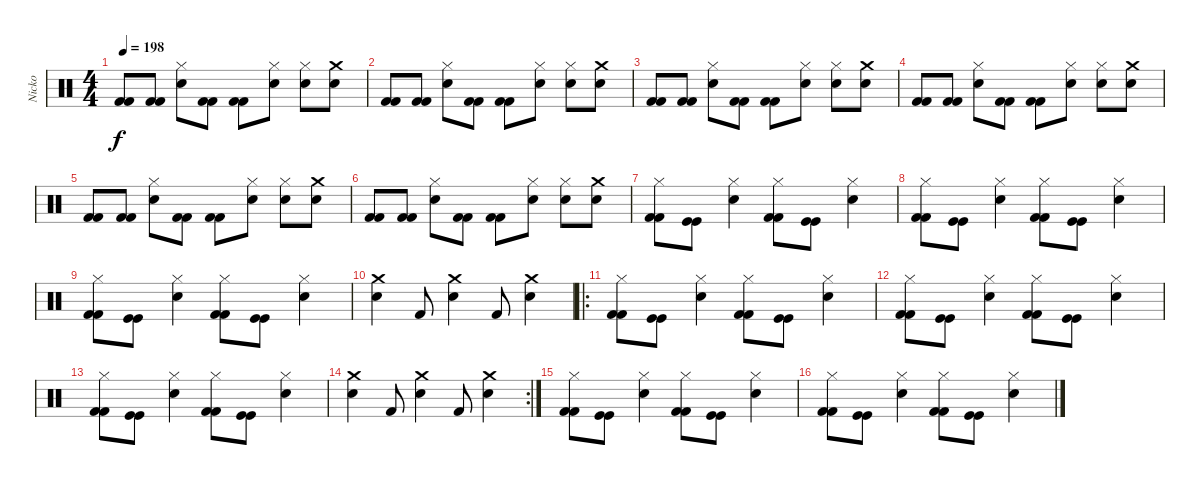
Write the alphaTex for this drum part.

\track ("Nicko" "Nicko") {instrument percussion}
\staff {score}
\articulation defaults
\ts (4 4)
\tempo 198
\clef neutral
\ks c
("Kick (hit) 2" "Kick (hit) 2").8{dy f} ("Kick (hit) 2" "Kick (hit) 2").8 ("Hi-Hat (closed)" "Electric Snare (hit)").8 ("Kick (hit) 2" "Kick (hit) 2").8 ("Kick (hit) 2" "Kick (hit) 2").8 ("Hi-Hat (closed)" "Electric Snare (hit)").8 ("Hi-Hat (closed)" "Electric Snare (hit)").8 ("Crash medium (hit)" "Electric Snare (hit)").8 |
("Kick (hit) 2" "Kick (hit) 2").8 ("Kick (hit) 2" "Kick (hit) 2").8 ("Hi-Hat (closed)" "Electric Snare (hit)").8 ("Kick (hit) 2" "Kick (hit) 2").8 ("Kick (hit) 2" "Kick (hit) 2").8 ("Hi-Hat (closed)" "Electric Snare (hit)").8 ("Hi-Hat (closed)" "Electric Snare (hit)").8 ("Crash medium (hit)" "Electric Snare (hit)").8 |
("Kick (hit) 2" "Kick (hit) 2").8 ("Kick (hit) 2" "Kick (hit) 2").8 ("Hi-Hat (closed)" "Electric Snare (hit)").8 ("Kick (hit) 2" "Kick (hit) 2").8 ("Kick (hit) 2" "Kick (hit) 2").8 ("Hi-Hat (closed)" "Electric Snare (hit)").8 ("Hi-Hat (closed)" "Electric Snare (hit)").8 ("Crash medium (hit)" "Electric Snare (hit)").8 |
("Kick (hit) 2" "Kick (hit) 2").8 ("Kick (hit) 2" "Kick (hit) 2").8 ("Hi-Hat (closed)" "Electric Snare (hit)").8 ("Kick (hit) 2" "Kick (hit) 2").8 ("Kick (hit) 2" "Kick (hit) 2").8 ("Hi-Hat (closed)" "Electric Snare (hit)").8 ("Hi-Hat (closed)" "Electric Snare (hit)").8 ("Crash medium (hit)" "Electric Snare (hit)").8 |
("Kick (hit) 2" "Kick (hit) 2").8 ("Kick (hit) 2" "Kick (hit) 2").8 ("Hi-Hat (closed)" "Electric Snare (hit)").8 ("Kick (hit) 2" "Kick (hit) 2").8 ("Kick (hit) 2" "Kick (hit) 2").8 ("Hi-Hat (closed)" "Electric Snare (hit)").8 ("Hi-Hat (closed)" "Electric Snare (hit)").8 ("Crash medium (hit)" "Electric Snare (hit)").8 |
("Kick (hit) 2" "Kick (hit) 2").8 ("Kick (hit) 2" "Kick (hit) 2").8 ("Hi-Hat (closed)" "Electric Snare (hit)").8 ("Kick (hit) 2" "Kick (hit) 2").8 ("Kick (hit) 2" "Kick (hit) 2").8 ("Hi-Hat (closed)" "Electric Snare (hit)").8 ("Hi-Hat (closed)" "Electric Snare (hit)").8 ("Crash medium (hit)" "Electric Snare (hit)").8 |
("Hi-Hat (closed)" "Kick (hit) 2" "Kick (hit) 2").8 ("Kick (hit)" "Kick (hit)").8 ("Hi-Hat (closed)" "Electric Snare (hit)").4 ("Hi-Hat (closed)" "Kick (hit) 2" "Kick (hit) 2").8 ("Kick (hit)" "Kick (hit)").8 ("Hi-Hat (closed)" "Electric Snare (hit)").4 |
("Hi-Hat (closed)" "Kick (hit) 2" "Kick (hit) 2").8 ("Kick (hit)" "Kick (hit)").8 ("Hi-Hat (closed)" "Electric Snare (hit)").4 ("Hi-Hat (closed)" "Kick (hit) 2" "Kick (hit) 2").8 ("Kick (hit)" "Kick (hit)").8 ("Hi-Hat (closed)" "Electric Snare (hit)").4 |
("Hi-Hat (closed)" "Kick (hit) 2" "Kick (hit) 2").8 ("Kick (hit)" "Kick (hit)").8 ("Hi-Hat (closed)" "Electric Snare (hit)").4 ("Hi-Hat (closed)" "Kick (hit) 2" "Kick (hit) 2").8 ("Kick (hit)" "Kick (hit)").8 ("Hi-Hat (closed)" "Electric Snare (hit)").4 |
("Crash medium (hit)" "Electric Snare (hit)").4 "Kick (hit) 2".8 ("Crash medium (hit)" "Electric Snare (hit)").4 "Kick (hit) 2".8 ("Crash medium (hit)" "Electric Snare (hit)").4 |
\ro
("Hi-Hat (closed)" "Kick (hit) 2" "Kick (hit) 2").8 ("Kick (hit)" "Kick (hit)").8 ("Hi-Hat (closed)" "Electric Snare (hit)").4 ("Hi-Hat (closed)" "Kick (hit) 2" "Kick (hit) 2").8 ("Kick (hit)" "Kick (hit)").8 ("Hi-Hat (closed)" "Electric Snare (hit)").4 |
("Hi-Hat (closed)" "Kick (hit) 2" "Kick (hit) 2").8 ("Kick (hit)" "Kick (hit)").8 ("Hi-Hat (closed)" "Electric Snare (hit)").4 ("Hi-Hat (closed)" "Kick (hit) 2" "Kick (hit) 2").8 ("Kick (hit)" "Kick (hit)").8 ("Hi-Hat (closed)" "Electric Snare (hit)").4 |
("Hi-Hat (closed)" "Kick (hit) 2" "Kick (hit) 2").8 ("Kick (hit)" "Kick (hit)").8 ("Hi-Hat (closed)" "Electric Snare (hit)").4 ("Hi-Hat (closed)" "Kick (hit) 2" "Kick (hit) 2").8 ("Kick (hit)" "Kick (hit)").8 ("Hi-Hat (closed)" "Electric Snare (hit)").4 |
\rc 2
("Crash medium (hit)" "Electric Snare (hit)").4 "Kick (hit) 2".8 ("Crash medium (hit)" "Electric Snare (hit)").4 "Kick (hit) 2".8 ("Crash medium (hit)" "Electric Snare (hit)").4 |
("Hi-Hat (closed)" "Kick (hit) 2" "Kick (hit) 2").8 ("Kick (hit)" "Kick (hit)").8 ("Hi-Hat (closed)" "Electric Snare (hit)").4 ("Hi-Hat (closed)" "Kick (hit) 2" "Kick (hit) 2").8 ("Kick (hit)" "Kick (hit)").8 ("Hi-Hat (closed)" "Electric Snare (hit)").4 |
("Hi-Hat (closed)" "Kick (hit) 2" "Kick (hit) 2").8 ("Kick (hit)" "Kick (hit)").8 ("Hi-Hat (closed)" "Electric Snare (hit)").4 ("Hi-Hat (closed)" "Kick (hit) 2" "Kick (hit) 2").8 ("Kick (hit)" "Kick (hit)").8 ("Hi-Hat (closed)" "Electric Snare (hit)").4
